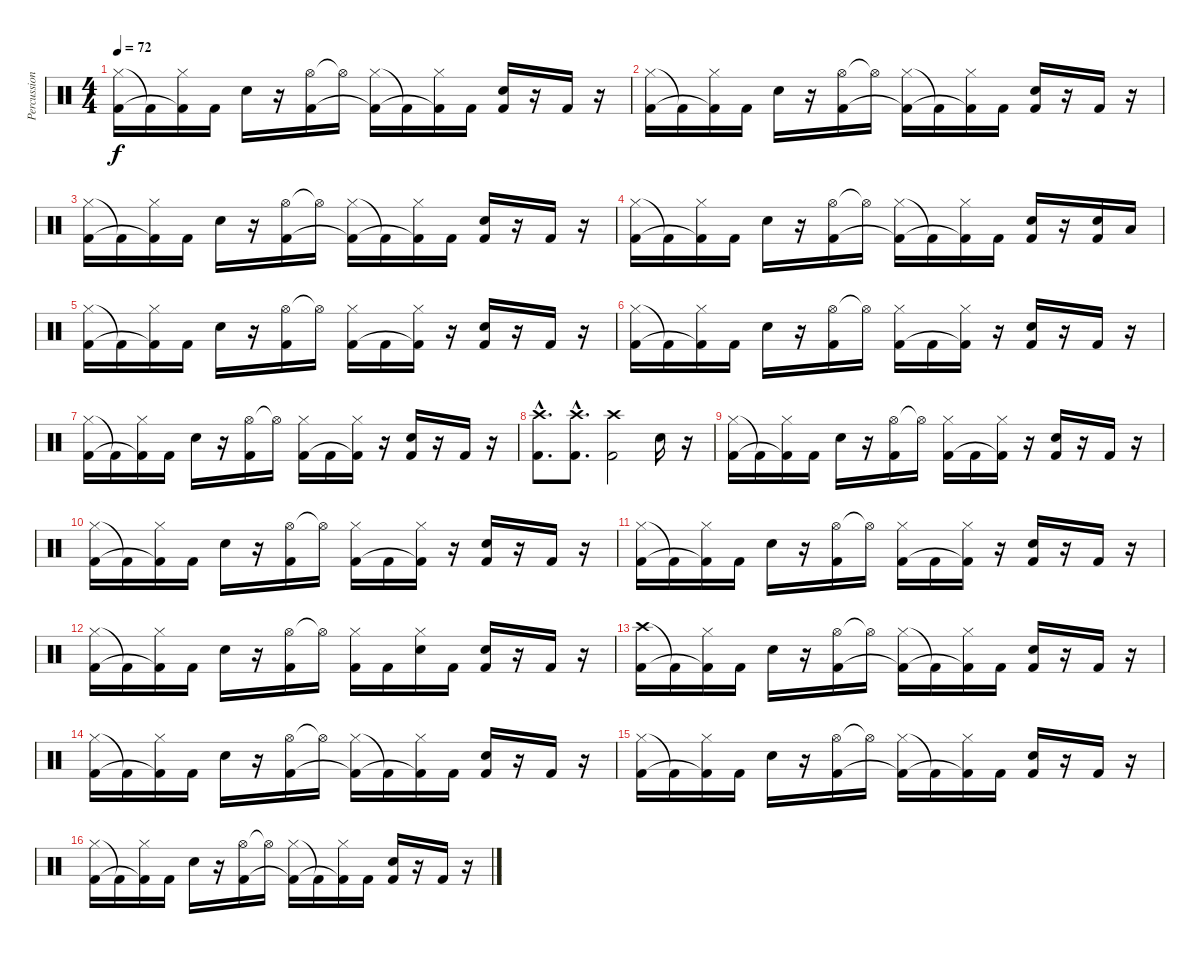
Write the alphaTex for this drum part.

\track ("Percussion" "Percussion") {instrument percussion}
\staff {score}
\articulation defaults
\ts (4 4)
\tempo 72
\clef neutral
\ks c
("Hi-Hat (closed)" "Kick (hit) 2").16{dy f} "Kick (hit) 2"{t}.16 ("Hi-Hat (closed)" "Kick (hit) 2"{t}).16 "Kick (hit) 2".16 "Snare (hit) 2".16 r.16 ("Hi-Hat (open)" "Kick (hit) 2").16 "Hi-Hat (open)"{t}.16 ("Hi-Hat (closed)" "Kick (hit) 2"{t}).16 "Kick (hit) 2"{t}.16 ("Hi-Hat (closed)" "Kick (hit) 2"{t}).16 "Kick (hit) 2".16 ("Snare (hit) 2" "Kick (hit) 2").16 r.16 "Kick (hit) 2".16 r.16 |
("Hi-Hat (closed)" "Kick (hit) 2").16 "Kick (hit) 2"{t}.16 ("Hi-Hat (closed)" "Kick (hit) 2"{t}).16 "Kick (hit) 2".16 "Snare (hit) 2".16 r.16 ("Hi-Hat (open)" "Kick (hit) 2").16 "Hi-Hat (open)"{t}.16 ("Hi-Hat (closed)" "Kick (hit) 2"{t}).16 "Kick (hit) 2"{t}.16 ("Hi-Hat (closed)" "Kick (hit) 2"{t}).16 "Kick (hit) 2".16 ("Snare (hit) 2" "Kick (hit) 2").16 r.16 "Kick (hit) 2".16 r.16 |
("Hi-Hat (closed)" "Kick (hit) 2").16 "Kick (hit) 2"{t}.16 ("Hi-Hat (closed)" "Kick (hit) 2"{t}).16 "Kick (hit) 2".16 "Snare (hit) 2".16 r.16 ("Hi-Hat (open)" "Kick (hit) 2").16 "Hi-Hat (open)"{t}.16 ("Hi-Hat (closed)" "Kick (hit) 2"{t}).16 "Kick (hit) 2"{t}.16 ("Hi-Hat (closed)" "Kick (hit) 2"{t}).16 "Kick (hit) 2".16 ("Snare (hit) 2" "Kick (hit) 2").16 r.16 "Kick (hit) 2".16 r.16 |
("Hi-Hat (closed)" "Kick (hit) 2").16 "Kick (hit) 2"{t}.16 ("Hi-Hat (closed)" "Kick (hit) 2"{t}).16 "Kick (hit) 2".16 "Snare (hit) 2".16 r.16 ("Hi-Hat (open)" "Kick (hit) 2").16 "Hi-Hat (open)"{t}.16 ("Hi-Hat (closed)" "Kick (hit) 2"{t}).16 "Kick (hit) 2"{t}.16 ("Hi-Hat (closed)" "Kick (hit) 2"{t}).16 "Kick (hit) 2".16 ("Snare (hit) 2" "Kick (hit) 2").16 r.16 ("Snare (hit) 2" "Kick (hit) 2").16 "Low Floor Tom (hit)".16 |
("Hi-Hat (closed)" "Kick (hit) 2").16 "Kick (hit) 2"{t}.16 ("Hi-Hat (closed)" "Kick (hit) 2"{t}).16 "Kick (hit) 2".16 "Snare (hit) 2".16 r.16 ("Hi-Hat (open)" "Kick (hit) 2").16 "Hi-Hat (open)"{t}.16 ("Hi-Hat (closed)" "Kick (hit) 2").16 "Kick (hit) 2".16 ("Hi-Hat (closed)" "Kick (hit) 2"{t}).16 r.16 ("Snare (hit) 2" "Kick (hit) 2").16 r.16 "Kick (hit) 2".16 r.16 |
("Hi-Hat (closed)" "Kick (hit) 2").16 "Kick (hit) 2"{t}.16 ("Hi-Hat (closed)" "Kick (hit) 2"{t}).16 "Kick (hit) 2".16 "Snare (hit) 2".16 r.16 ("Hi-Hat (open)" "Kick (hit) 2").16 "Hi-Hat (open)"{t}.16 ("Hi-Hat (closed)" "Kick (hit) 2").16 "Kick (hit) 2".16 ("Hi-Hat (closed)" "Kick (hit) 2"{t}).16 r.16 ("Snare (hit) 2" "Kick (hit) 2").16 r.16 "Kick (hit) 2".16 r.16 |
("Hi-Hat (closed)" "Kick (hit) 2").16 "Kick (hit) 2"{t}.16 ("Hi-Hat (closed)" "Kick (hit) 2"{t}).16 "Kick (hit) 2".16 "Snare (hit) 2".16 r.16 ("Hi-Hat (open)" "Kick (hit) 2").16 "Hi-Hat (open)"{t}.16 ("Hi-Hat (closed)" "Kick (hit) 2").16 "Kick (hit) 2".16 ("Hi-Hat (closed)" "Kick (hit) 2"{t}).16 r.16 ("Snare (hit) 2" "Kick (hit) 2").16 r.16 "Kick (hit) 2".16 r.16 |
("Crash high (hit)"{hac} "Kick (hit) 2"{hac}).8{d} ("Crash high (hit)"{hac} "Kick (hit) 2"{hac}).8{d} ("Crash high (hit)" "Kick (hit) 2").2 "Snare (hit) 2".16 r.16 |
("Hi-Hat (closed)" "Kick (hit) 2").16 "Kick (hit) 2"{t}.16 ("Hi-Hat (closed)" "Kick (hit) 2"{t}).16 "Kick (hit) 2".16 "Snare (hit) 2".16 r.16 ("Hi-Hat (open)" "Kick (hit) 2").16 "Hi-Hat (open)"{t}.16 ("Hi-Hat (closed)" "Kick (hit) 2").16 "Kick (hit) 2".16 ("Hi-Hat (closed)" "Kick (hit) 2"{t}).16 r.16 ("Snare (hit) 2" "Kick (hit) 2").16 r.16 "Kick (hit) 2".16 r.16 |
("Hi-Hat (closed)" "Kick (hit) 2").16 "Kick (hit) 2"{t}.16 ("Hi-Hat (closed)" "Kick (hit) 2"{t}).16 "Kick (hit) 2".16 "Snare (hit) 2".16 r.16 ("Hi-Hat (open)" "Kick (hit) 2").16 "Hi-Hat (open)"{t}.16 ("Hi-Hat (closed)" "Kick (hit) 2").16 "Kick (hit) 2".16 ("Hi-Hat (closed)" "Kick (hit) 2"{t}).16 r.16 ("Snare (hit) 2" "Kick (hit) 2").16 r.16 "Kick (hit) 2".16 r.16 |
("Hi-Hat (closed)" "Kick (hit) 2").16 "Kick (hit) 2"{t}.16 ("Hi-Hat (closed)" "Kick (hit) 2"{t}).16 "Kick (hit) 2".16 "Snare (hit) 2".16 r.16 ("Hi-Hat (open)" "Kick (hit) 2").16 "Hi-Hat (open)"{t}.16 ("Hi-Hat (closed)" "Kick (hit) 2").16 "Kick (hit) 2".16 ("Hi-Hat (closed)" "Kick (hit) 2"{t}).16 r.16 ("Snare (hit) 2" "Kick (hit) 2").16 r.16 "Kick (hit) 2".16 r.16 |
("Hi-Hat (closed)" "Kick (hit) 2").16 "Kick (hit) 2"{t}.16 ("Hi-Hat (closed)" "Kick (hit) 2"{t}).16 "Kick (hit) 2".16 "Snare (hit) 2".16 r.16 ("Hi-Hat (open)" "Kick (hit) 2").16 "Hi-Hat (open)"{t}.16 ("Hi-Hat (closed)" "Kick (hit) 2").16 "Kick (hit) 2".16 ("Hi-Hat (closed)" "Snare (hit) 2").16 "Kick (hit) 2".16 ("Snare (hit) 2" "Kick (hit) 2").16 r.16 "Kick (hit) 2".16 r.16 |
("Crash high (hit)" "Kick (hit) 2").16 "Kick (hit) 2"{t}.16 ("Hi-Hat (closed)" "Kick (hit) 2"{t}).16 "Kick (hit) 2".16 "Snare (hit) 2".16 r.16 ("Hi-Hat (open)" "Kick (hit) 2").16 "Hi-Hat (open)"{t}.16 ("Hi-Hat (closed)" "Kick (hit) 2"{t}).16 "Kick (hit) 2"{t}.16 ("Hi-Hat (closed)" "Kick (hit) 2"{t}).16 "Kick (hit) 2".16 ("Snare (hit) 2" "Kick (hit) 2").16 r.16 "Kick (hit) 2".16 r.16 |
("Hi-Hat (closed)" "Kick (hit) 2").16 "Kick (hit) 2"{t}.16 ("Hi-Hat (closed)" "Kick (hit) 2"{t}).16 "Kick (hit) 2".16 "Snare (hit) 2".16 r.16 ("Hi-Hat (open)" "Kick (hit) 2").16 "Hi-Hat (open)"{t}.16 ("Hi-Hat (closed)" "Kick (hit) 2"{t}).16 "Kick (hit) 2"{t}.16 ("Hi-Hat (closed)" "Kick (hit) 2"{t}).16 "Kick (hit) 2".16 ("Snare (hit) 2" "Kick (hit) 2").16 r.16 "Kick (hit) 2".16 r.16 |
("Hi-Hat (closed)" "Kick (hit) 2").16 "Kick (hit) 2"{t}.16 ("Hi-Hat (closed)" "Kick (hit) 2"{t}).16 "Kick (hit) 2".16 "Snare (hit) 2".16 r.16 ("Hi-Hat (open)" "Kick (hit) 2").16 "Hi-Hat (open)"{t}.16 ("Hi-Hat (closed)" "Kick (hit) 2"{t}).16 "Kick (hit) 2"{t}.16 ("Hi-Hat (closed)" "Kick (hit) 2"{t}).16 "Kick (hit) 2".16 ("Snare (hit) 2" "Kick (hit) 2").16 r.16 "Kick (hit) 2".16 r.16 |
("Hi-Hat (closed)" "Kick (hit) 2").16 "Kick (hit) 2"{t}.16 ("Hi-Hat (closed)" "Kick (hit) 2"{t}).16 "Kick (hit) 2".16 "Snare (hit) 2".16 r.16 ("Hi-Hat (open)" "Kick (hit) 2").16 "Hi-Hat (open)"{t}.16 ("Hi-Hat (closed)" "Kick (hit) 2"{t}).16 "Kick (hit) 2"{t}.16 ("Hi-Hat (closed)" "Kick (hit) 2"{t}).16 "Kick (hit) 2".16 ("Snare (hit) 2" "Kick (hit) 2").16 r.16 "Kick (hit) 2".16 r.16
